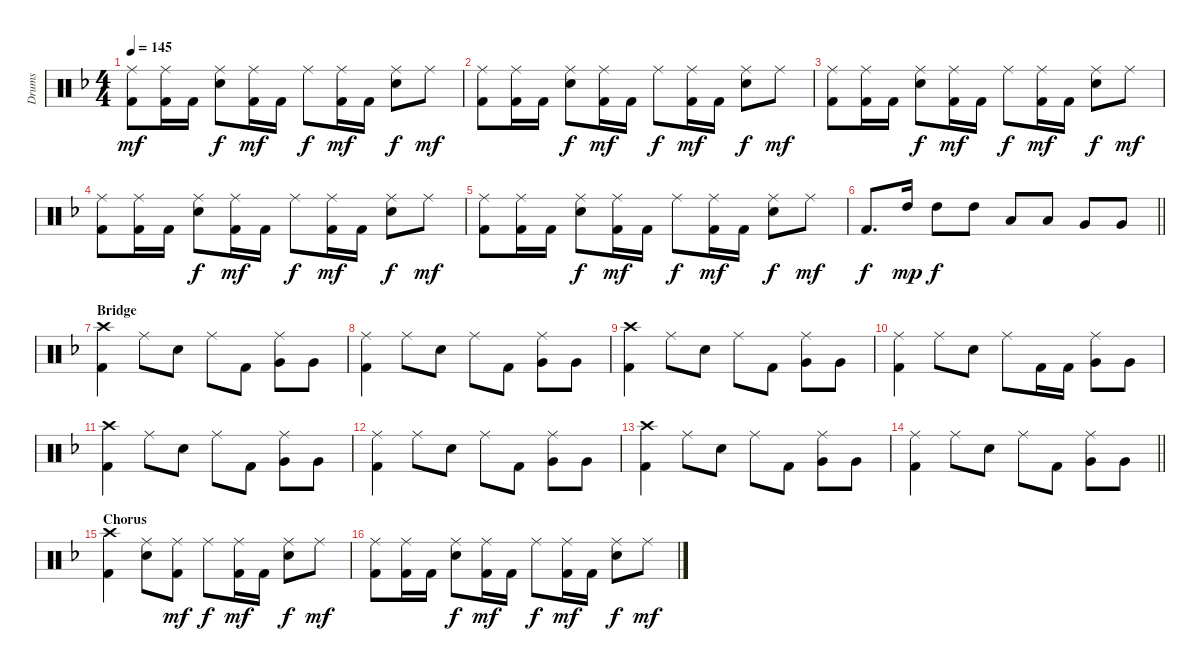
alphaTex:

\track ("Drums" "Drums") {instrument percussion}
\staff {score}
\articulation defaults
\ts (4 4)
\tempo 145
\clef neutral
\ks f
("Ride (middle)" "Kick (hit) 2").8{dy mf} ("Ride (middle)" "Kick (hit) 2").16 "Kick (hit) 2".16 ("Ride (middle)" "Electric Snare (hit)").8{dy f} ("Ride (middle)" "Kick (hit) 2").16{dy mf} "Kick (hit) 2".16 "Ride (middle)".8{dy f} ("Ride (middle)" "Kick (hit) 2").16{dy mf} "Kick (hit) 2".16 ("Ride (middle)" "Electric Snare (hit)").8{dy f} "Ride (middle)".8{dy mf} |
("Ride (middle)" "Kick (hit) 2").8 ("Ride (middle)" "Kick (hit) 2").16 "Kick (hit) 2".16 ("Ride (middle)" "Electric Snare (hit)").8{dy f} ("Ride (middle)" "Kick (hit) 2").16{dy mf} "Kick (hit) 2".16 "Ride (middle)".8{dy f} ("Ride (middle)" "Kick (hit) 2").16{dy mf} "Kick (hit) 2".16 ("Ride (middle)" "Electric Snare (hit)").8{dy f} "Ride (middle)".8{dy mf} |
("Ride (middle)" "Kick (hit) 2").8 ("Ride (middle)" "Kick (hit) 2").16 "Kick (hit) 2".16 ("Ride (middle)" "Electric Snare (hit)").8{dy f} ("Ride (middle)" "Kick (hit) 2").16{dy mf} "Kick (hit) 2".16 "Ride (middle)".8{dy f} ("Ride (middle)" "Kick (hit) 2").16{dy mf} "Kick (hit) 2".16 ("Ride (middle)" "Electric Snare (hit)").8{dy f} "Ride (middle)".8{dy mf} |
("Ride (middle)" "Kick (hit) 2").8 ("Ride (middle)" "Kick (hit) 2").16 "Kick (hit) 2".16 ("Ride (middle)" "Electric Snare (hit)").8{dy f} ("Ride (middle)" "Kick (hit) 2").16{dy mf} "Kick (hit) 2".16 "Ride (middle)".8{dy f} ("Ride (middle)" "Kick (hit) 2").16{dy mf} "Kick (hit) 2".16 ("Ride (middle)" "Electric Snare (hit)").8{dy f} "Ride (middle)".8{dy mf} |
("Ride (middle)" "Kick (hit) 2").8 ("Ride (middle)" "Kick (hit) 2").16 "Kick (hit) 2".16 ("Ride (middle)" "Electric Snare (hit)").8{dy f} ("Ride (middle)" "Kick (hit) 2").16{dy mf} "Kick (hit) 2".16 "Ride (middle)".8{dy f} ("Ride (middle)" "Kick (hit) 2").16{dy mf} "Kick (hit) 2".16 ("Ride (middle)" "Electric Snare (hit)").8{dy f} "Ride (middle)".8{dy mf} |
\barLineRight lightlight "Kick (hit) 2".8{d dy f} "High Tom (hit)".16{dy mp} "High Tom (hit)".8{dy f} "High Tom (hit)".8 "Low Tom (hit)".8 "Low Tom (hit)".8 "Very Low Tom (hit)".8 "Very Low Tom (hit)".8
|
\section ("" "Bridge")
("Crash high (hit)" "Kick (hit) 2").4 "Ride (middle)".8 "Electric Snare (hit)".8 "Ride (middle)".8 "Kick (hit) 2".8 ("Ride (middle)" "Very Low Tom (hit)").8 "Very Low Tom (hit)".8 |
("Ride (middle)" "Kick (hit) 2").4 "Ride (middle)".8 "Electric Snare (hit)".8 "Ride (middle)".8 "Kick (hit) 2".8 ("Ride (middle)" "Very Low Tom (hit)").8 "Very Low Tom (hit)".8 |
("Crash high (hit)" "Kick (hit) 2").4 "Ride (middle)".8 "Electric Snare (hit)".8 "Ride (middle)".8 "Kick (hit) 2".8 ("Ride (middle)" "Very Low Tom (hit)").8 "Very Low Tom (hit)".8 |
("Ride (middle)" "Kick (hit) 2").4 "Ride (middle)".8 "Electric Snare (hit)".8 "Ride (middle)".8 "Kick (hit) 2".16 "Kick (hit) 2".16 ("Ride (middle)" "Very Low Tom (hit)").8 "Very Low Tom (hit)".8 |
("Crash high (hit)" "Kick (hit) 2").4 "Ride (middle)".8 "Electric Snare (hit)".8 "Ride (middle)".8 "Kick (hit) 2".8 ("Ride (middle)" "Very Low Tom (hit)").8 "Very Low Tom (hit)".8 |
("Ride (middle)" "Kick (hit) 2").4 "Ride (middle)".8 "Electric Snare (hit)".8 "Ride (middle)".8 "Kick (hit) 2".8 ("Ride (middle)" "Very Low Tom (hit)").8 "Very Low Tom (hit)".8 |
("Crash high (hit)" "Kick (hit) 2").4 "Ride (middle)".8 "Electric Snare (hit)".8 "Ride (middle)".8 "Kick (hit) 2".8 ("Ride (middle)" "Very Low Tom (hit)").8 "Very Low Tom (hit)".8 |
\barLineRight lightlight
("Ride (middle)" "Kick (hit) 2").4 "Ride (middle)".8 "Electric Snare (hit)".8 "Ride (middle)".8 "Kick (hit) 2".8 ("Ride (middle)" "Very Low Tom (hit)").8 "Very Low Tom (hit)".8 |
\section ("" "Chorus")
("Crash high (hit)" "Kick (hit) 2").4 ("Ride (middle)" "Electric Snare (hit)").8 ("Ride (middle)" "Kick (hit) 2").8{dy mf} "Ride (middle)".8{dy f} ("Ride (middle)" "Kick (hit) 2").16{dy mf} "Kick (hit) 2".16 ("Ride (middle)" "Electric Snare (hit)").8{dy f} "Ride (middle)".8{dy mf} |
("Ride (middle)" "Kick (hit) 2").8 ("Ride (middle)" "Kick (hit) 2").16 "Kick (hit) 2".16 ("Ride (middle)" "Electric Snare (hit)").8{dy f} ("Ride (middle)" "Kick (hit) 2").16{dy mf} "Kick (hit) 2".16 "Ride (middle)".8{dy f} ("Ride (middle)" "Kick (hit) 2").16{dy mf} "Kick (hit) 2".16 ("Ride (middle)" "Electric Snare (hit)").8{dy f} "Ride (middle)".8{dy mf}
